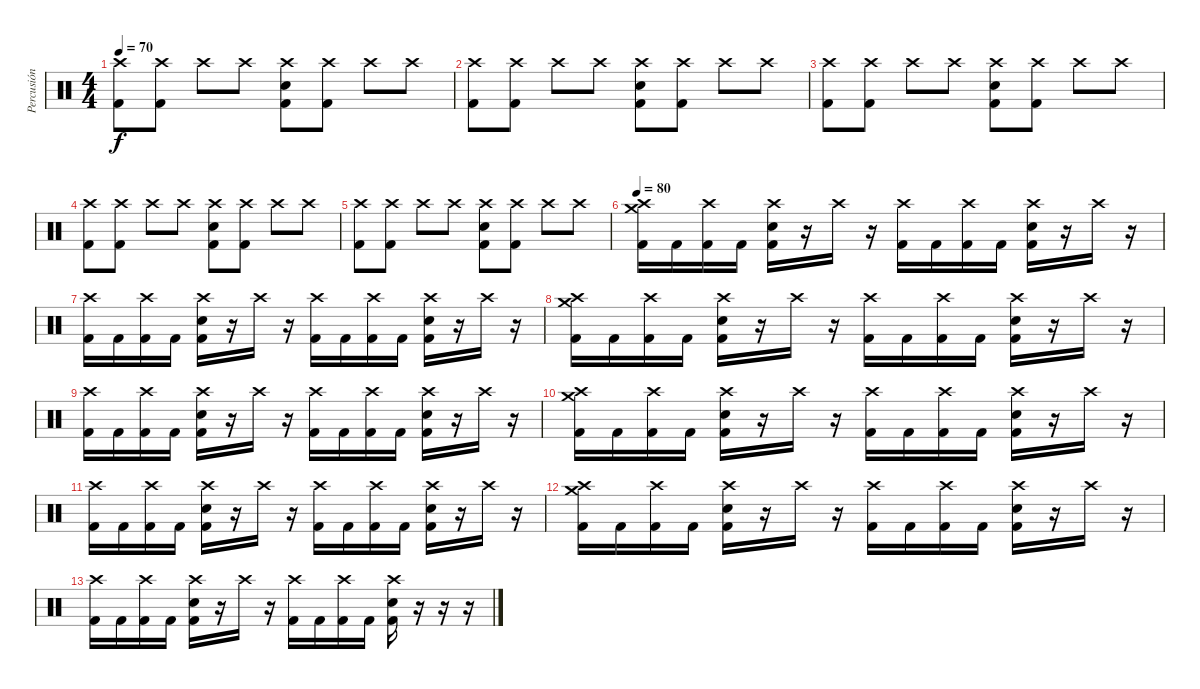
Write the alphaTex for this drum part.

\track ("Percusión" "Percusión") {instrument percussion}
\staff {score}
\articulation defaults
\ts (4 4)
\tempo 70
\clef neutral
\ks c
("Crash high (hit)" "Kick (hit) 2").8{dy f} ("Crash high (hit)" "Kick (hit) 2").8 "Crash high (hit)".8 "Crash high (hit)".8 ("Crash high (hit)" "Snare (hit) 2" "Kick (hit) 2").8 ("Crash high (hit)" "Kick (hit) 2").8 "Crash high (hit)".8 "Crash high (hit)".8 |
("Crash high (hit)" "Kick (hit) 2").8 ("Crash high (hit)" "Kick (hit) 2").8 "Crash high (hit)".8 "Crash high (hit)".8 ("Crash high (hit)" "Snare (hit) 2" "Kick (hit) 2").8 ("Crash high (hit)" "Kick (hit) 2").8 "Crash high (hit)".8 "Crash high (hit)".8 |
("Crash high (hit)" "Kick (hit) 2").8 ("Crash high (hit)" "Kick (hit) 2").8 "Crash high (hit)".8 "Crash high (hit)".8 ("Crash high (hit)" "Snare (hit) 2" "Kick (hit) 2").8 ("Crash high (hit)" "Kick (hit) 2").8 "Crash high (hit)".8 "Crash high (hit)".8 |
("Crash high (hit)" "Kick (hit) 2").8 ("Crash high (hit)" "Kick (hit) 2").8 "Crash high (hit)".8 "Crash high (hit)".8 ("Crash high (hit)" "Snare (hit) 2" "Kick (hit) 2").8 ("Crash high (hit)" "Kick (hit) 2").8 "Crash high (hit)".8 "Crash high (hit)".8 |
("Crash high (hit)" "Kick (hit) 2").8 ("Crash high (hit)" "Kick (hit) 2").8 "Crash high (hit)".8 "Crash high (hit)".8 ("Crash high (hit)" "Snare (hit) 2" "Kick (hit) 2").8 ("Crash high (hit)" "Kick (hit) 2").8 "Crash high (hit)".8 "Crash high (hit)".8 |
\tempo 80
("Crash medium (hit)" "Crash high (hit)" "Kick (hit) 2").16 "Kick (hit) 2".16 ("Crash high (hit)" "Kick (hit) 2").16 "Kick (hit) 2".16 ("Crash high (hit)" "Snare (hit) 2" "Kick (hit) 2").16 r.16 "Crash high (hit)".16 r.16 ("Crash high (hit)" "Kick (hit) 2").16 "Kick (hit) 2".16 ("Crash high (hit)" "Kick (hit) 2").16 "Kick (hit) 2".16 ("Crash high (hit)" "Snare (hit) 2" "Kick (hit) 2").16 r.16 "Crash high (hit)".16 r.16 |
("Crash high (hit)" "Kick (hit) 2").16 "Kick (hit) 2".16 ("Crash high (hit)" "Kick (hit) 2").16 "Kick (hit) 2".16 ("Crash high (hit)" "Snare (hit) 2" "Kick (hit) 2").16 r.16 "Crash high (hit)".16 r.16 ("Crash high (hit)" "Kick (hit) 2").16 "Kick (hit) 2".16 ("Crash high (hit)" "Kick (hit) 2").16 "Kick (hit) 2".16 ("Crash high (hit)" "Snare (hit) 2" "Kick (hit) 2").16 r.16 "Crash high (hit)".16 r.16 |
("Crash medium (hit)" "Crash high (hit)" "Kick (hit) 2").16 "Kick (hit) 2".16 ("Crash high (hit)" "Kick (hit) 2").16 "Kick (hit) 2".16 ("Crash high (hit)" "Snare (hit) 2" "Kick (hit) 2").16 r.16 "Crash high (hit)".16 r.16 ("Crash high (hit)" "Kick (hit) 2").16 "Kick (hit) 2".16 ("Crash high (hit)" "Kick (hit) 2").16 "Kick (hit) 2".16 ("Crash high (hit)" "Snare (hit) 2" "Kick (hit) 2").16 r.16 "Crash high (hit)".16 r.16 |
("Crash high (hit)" "Kick (hit) 2").16 "Kick (hit) 2".16 ("Crash high (hit)" "Kick (hit) 2").16 "Kick (hit) 2".16 ("Crash high (hit)" "Snare (hit) 2" "Kick (hit) 2").16 r.16 "Crash high (hit)".16 r.16 ("Crash high (hit)" "Kick (hit) 2").16 "Kick (hit) 2".16 ("Crash high (hit)" "Kick (hit) 2").16 "Kick (hit) 2".16 ("Crash high (hit)" "Snare (hit) 2" "Kick (hit) 2").16 r.16 "Crash high (hit)".16 r.16 |
("Crash medium (hit)" "Crash high (hit)" "Kick (hit) 2").16 "Kick (hit) 2".16 ("Crash high (hit)" "Kick (hit) 2").16 "Kick (hit) 2".16 ("Crash high (hit)" "Snare (hit) 2" "Kick (hit) 2").16 r.16 "Crash high (hit)".16 r.16 ("Crash high (hit)" "Kick (hit) 2").16 "Kick (hit) 2".16 ("Crash high (hit)" "Kick (hit) 2").16 "Kick (hit) 2".16 ("Crash high (hit)" "Snare (hit) 2" "Kick (hit) 2").16 r.16 "Crash high (hit)".16 r.16 |
("Crash high (hit)" "Kick (hit) 2").16 "Kick (hit) 2".16 ("Crash high (hit)" "Kick (hit) 2").16 "Kick (hit) 2".16 ("Crash high (hit)" "Snare (hit) 2" "Kick (hit) 2").16 r.16 "Crash high (hit)".16 r.16 ("Crash high (hit)" "Kick (hit) 2").16 "Kick (hit) 2".16 ("Crash high (hit)" "Kick (hit) 2").16 "Kick (hit) 2".16 ("Crash high (hit)" "Snare (hit) 2" "Kick (hit) 2").16 r.16 "Crash high (hit)".16 r.16 |
("Crash medium (hit)" "Crash high (hit)" "Kick (hit) 2").16 "Kick (hit) 2".16 ("Crash high (hit)" "Kick (hit) 2").16 "Kick (hit) 2".16 ("Crash high (hit)" "Snare (hit) 2" "Kick (hit) 2").16 r.16 "Crash high (hit)".16 r.16 ("Crash high (hit)" "Kick (hit) 2").16 "Kick (hit) 2".16 ("Crash high (hit)" "Kick (hit) 2").16 "Kick (hit) 2".16 ("Crash high (hit)" "Snare (hit) 2" "Kick (hit) 2").16 r.16 "Crash high (hit)".16 r.16 |
("Crash high (hit)" "Kick (hit) 2").16 "Kick (hit) 2".16 ("Crash high (hit)" "Kick (hit) 2").16 "Kick (hit) 2".16 ("Crash high (hit)" "Snare (hit) 2" "Kick (hit) 2").16 r.16 "Crash high (hit)".16 r.16 ("Crash high (hit)" "Kick (hit) 2").16 "Kick (hit) 2".16 ("Crash high (hit)" "Kick (hit) 2").16 "Kick (hit) 2".16 ("Crash high (hit)" "Snare (hit) 2" "Kick (hit) 2").16 r.16 r.16 r.16
